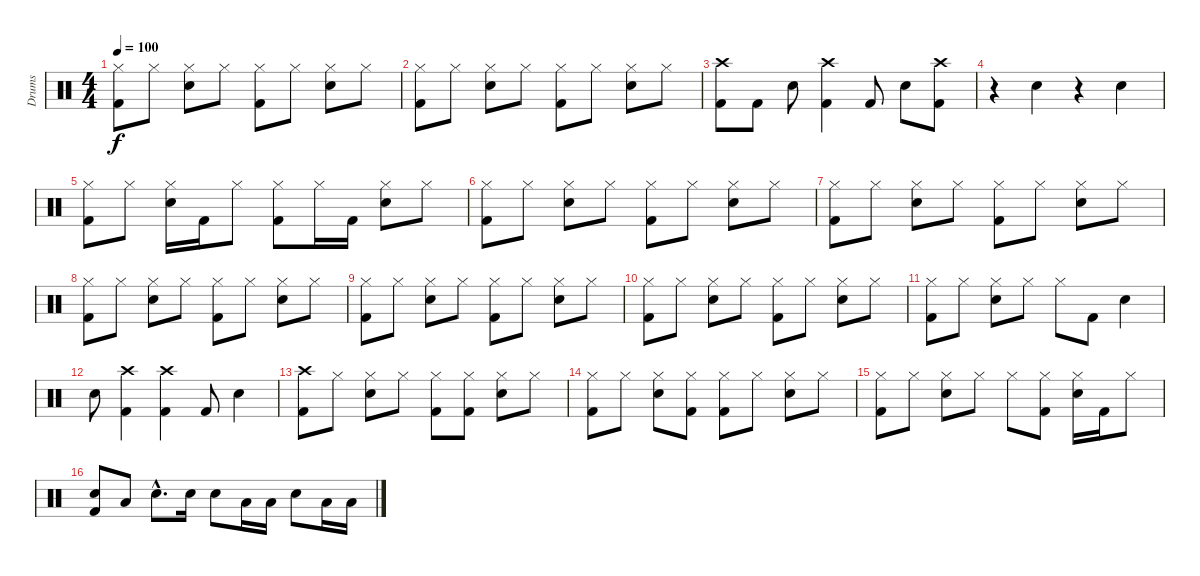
\track ("Drums" "Drums") {instrument percussion}
\staff {score}
\articulation defaults
\ts (4 4)
\tempo 100
\clef neutral
\ks c
("Hi-Hat (closed)" "Kick (hit) 2").8{dy f} "Hi-Hat (closed)".8 ("Hi-Hat (closed)" "Electric Snare (hit)").8 "Hi-Hat (closed)".8 ("Hi-Hat (closed)" "Kick (hit) 2").8 "Hi-Hat (closed)".8 ("Hi-Hat (closed)" "Electric Snare (hit)").8 "Hi-Hat (closed)".8 |
("Hi-Hat (closed)" "Kick (hit) 2").8 "Hi-Hat (closed)".8 ("Hi-Hat (closed)" "Electric Snare (hit)").8 "Hi-Hat (closed)".8 ("Hi-Hat (closed)" "Kick (hit) 2").8 "Hi-Hat (closed)".8 ("Hi-Hat (closed)" "Electric Snare (hit)").8 "Hi-Hat (closed)".8 |
("Crash high (hit)" "Kick (hit) 2").8 "Kick (hit) 2".8 "Electric Snare (hit)".8 ("Crash high (hit)" "Kick (hit) 2").4 "Kick (hit) 2".8 "Electric Snare (hit)".8 ("Crash high (hit)" "Kick (hit) 2").8 |
r.4 "Electric Snare (hit)".4 r.4 "Electric Snare (hit)".4 |
("Hi-Hat (closed)" "Kick (hit) 2").8 "Hi-Hat (closed)".8 ("Hi-Hat (closed)" "Electric Snare (hit)").16 "Kick (hit) 2".16 "Hi-Hat (closed)".8 ("Hi-Hat (closed)" "Kick (hit) 2").8 "Hi-Hat (closed)".16 "Kick (hit) 2".16 ("Hi-Hat (closed)" "Electric Snare (hit)").8 "Hi-Hat (closed)".8 |
("Hi-Hat (closed)" "Kick (hit) 2").8 "Hi-Hat (closed)".8 ("Hi-Hat (closed)" "Electric Snare (hit)").8 "Hi-Hat (closed)".8 ("Hi-Hat (closed)" "Kick (hit) 2").8 "Hi-Hat (closed)".8 ("Hi-Hat (closed)" "Electric Snare (hit)").8 "Hi-Hat (closed)".8 |
("Hi-Hat (closed)" "Kick (hit) 2").8 "Hi-Hat (closed)".8 ("Hi-Hat (closed)" "Electric Snare (hit)").8 "Hi-Hat (closed)".8 ("Hi-Hat (closed)" "Kick (hit) 2").8 "Hi-Hat (closed)".8 ("Hi-Hat (closed)" "Electric Snare (hit)").8 "Hi-Hat (closed)".8 |
("Hi-Hat (closed)" "Kick (hit) 2").8 "Hi-Hat (closed)".8 ("Hi-Hat (closed)" "Electric Snare (hit)").8 "Hi-Hat (closed)".8 ("Hi-Hat (closed)" "Kick (hit) 2").8 "Hi-Hat (closed)".8 ("Hi-Hat (closed)" "Electric Snare (hit)").8 "Hi-Hat (closed)".8 |
("Hi-Hat (closed)" "Kick (hit) 2").8 "Hi-Hat (closed)".8 ("Hi-Hat (closed)" "Electric Snare (hit)").8 "Hi-Hat (closed)".8 ("Hi-Hat (closed)" "Kick (hit) 2").8 "Hi-Hat (closed)".8 ("Hi-Hat (closed)" "Electric Snare (hit)").8 "Hi-Hat (closed)".8 |
("Hi-Hat (closed)" "Kick (hit) 2").8 "Hi-Hat (closed)".8 ("Hi-Hat (closed)" "Electric Snare (hit)").8 "Hi-Hat (closed)".8 ("Hi-Hat (closed)" "Kick (hit) 2").8 "Hi-Hat (closed)".8 ("Hi-Hat (closed)" "Electric Snare (hit)").8 "Hi-Hat (closed)".8 |
("Hi-Hat (closed)" "Kick (hit) 2").8 "Hi-Hat (closed)".8 ("Hi-Hat (closed)" "Electric Snare (hit)").8 "Hi-Hat (closed)".8 "Hi-Hat (closed)".8 "Kick (hit) 2".8 "Electric Snare (hit)".4 |
"Electric Snare (hit)".8 ("Crash high (hit)" "Kick (hit) 2").4 ("Crash high (hit)" "Kick (hit) 2").4 "Kick (hit) 2".8 "Electric Snare (hit)".4 |
("Crash high (hit)" "Kick (hit) 2").8 "Hi-Hat (closed)".8 ("Hi-Hat (closed)" "Electric Snare (hit)").8 "Hi-Hat (closed)".8 ("Hi-Hat (closed)" "Kick (hit) 2").8 ("Hi-Hat (closed)" "Kick (hit) 2").8 ("Hi-Hat (closed)" "Electric Snare (hit)").8 "Hi-Hat (closed)".8 |
("Hi-Hat (closed)" "Kick (hit) 2").8 "Hi-Hat (closed)".8 ("Hi-Hat (closed)" "Electric Snare (hit)").8 ("Hi-Hat (closed)" "Kick (hit) 2").8 ("Hi-Hat (closed)" "Kick (hit) 2").8 "Hi-Hat (closed)".8 ("Hi-Hat (closed)" "Electric Snare (hit)").8 "Hi-Hat (closed)".8 |
("Hi-Hat (closed)" "Kick (hit) 2").8 "Hi-Hat (closed)".8 ("Hi-Hat (closed)" "Electric Snare (hit)").8 "Hi-Hat (closed)".8 "Hi-Hat (closed)".8 ("Hi-Hat (closed)" "Kick (hit) 2").8 ("Hi-Hat (closed)" "Electric Snare (hit)").16 "Kick (hit) 2".16 "Hi-Hat (closed)".8 |
("Electric Snare (hit)" "Kick (hit) 2").8 "Low Tom (hit)".8 "Electric Snare (hit)"{hac}.8{d} "Electric Snare (hit)".16 "Electric Snare (hit)".8 "Low Tom (hit)".16 "Low Tom (hit)".16 "Electric Snare (hit)".8 "Low Tom (hit)".16 "Low Tom (hit)".16
